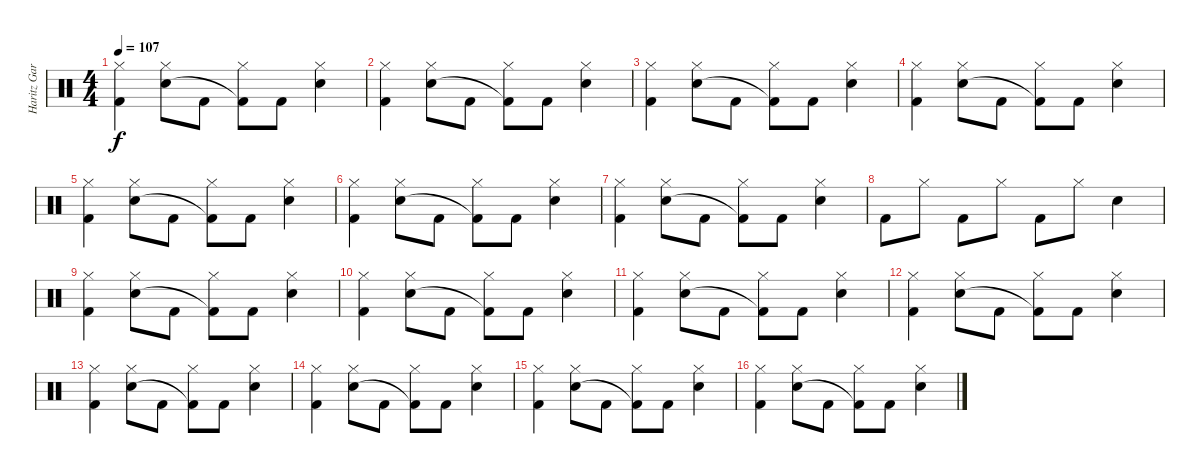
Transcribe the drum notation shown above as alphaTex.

\track ("Haritz Gardo" "Haritz Gar") {instrument percussion}
\staff {score}
\articulation defaults
\ts (4 4)
\tempo 107
\clef neutral
\ks c
("Hi-Hat (closed)" "Kick (hit) 2").4{dy f} ("Hi-Hat (closed)" "Electric Snare (hit)").8 "Kick (hit) 2".8 ("Hi-Hat (closed)" "Kick (hit) 2"{t}).8 "Kick (hit) 2".8 ("Hi-Hat (closed)" "Electric Snare (hit)").4 |
("Hi-Hat (closed)" "Kick (hit) 2").4 ("Hi-Hat (closed)" "Electric Snare (hit)").8 "Kick (hit) 2".8 ("Hi-Hat (closed)" "Kick (hit) 2"{t}).8 "Kick (hit) 2".8 ("Hi-Hat (closed)" "Electric Snare (hit)").4 |
("Hi-Hat (closed)" "Kick (hit) 2").4 ("Hi-Hat (closed)" "Electric Snare (hit)").8 "Kick (hit) 2".8 ("Hi-Hat (closed)" "Kick (hit) 2"{t}).8 "Kick (hit) 2".8 ("Hi-Hat (closed)" "Electric Snare (hit)").4 |
("Hi-Hat (closed)" "Kick (hit) 2").4 ("Hi-Hat (closed)" "Electric Snare (hit)").8 "Kick (hit) 2".8 ("Hi-Hat (closed)" "Kick (hit) 2"{t}).8 "Kick (hit) 2".8 ("Hi-Hat (closed)" "Electric Snare (hit)").4 |
("Hi-Hat (closed)" "Kick (hit) 2").4 ("Hi-Hat (closed)" "Electric Snare (hit)").8 "Kick (hit) 2".8 ("Hi-Hat (closed)" "Kick (hit) 2"{t}).8 "Kick (hit) 2".8 ("Hi-Hat (closed)" "Electric Snare (hit)").4 |
("Hi-Hat (closed)" "Kick (hit) 2").4 ("Hi-Hat (closed)" "Electric Snare (hit)").8 "Kick (hit) 2".8 ("Hi-Hat (closed)" "Kick (hit) 2"{t}).8 "Kick (hit) 2".8 ("Hi-Hat (closed)" "Electric Snare (hit)").4 |
("Hi-Hat (closed)" "Kick (hit) 2").4 ("Hi-Hat (closed)" "Electric Snare (hit)").8 "Kick (hit) 2".8 ("Hi-Hat (closed)" "Kick (hit) 2"{t}).8 "Kick (hit) 2".8 ("Hi-Hat (closed)" "Electric Snare (hit)").4 |
"Kick (hit) 2".8 "Hi-Hat (closed)".8 "Kick (hit) 2".8 "Hi-Hat (closed)".8 "Kick (hit) 2".8 "Hi-Hat (closed)".8 "Electric Snare (hit)".4 |
("Hi-Hat (closed)" "Kick (hit) 2").4 ("Hi-Hat (closed)" "Electric Snare (hit)").8 "Kick (hit) 2".8 ("Hi-Hat (closed)" "Kick (hit) 2"{t}).8 "Kick (hit) 2".8 ("Hi-Hat (closed)" "Electric Snare (hit)").4 |
("Hi-Hat (closed)" "Kick (hit) 2").4 ("Hi-Hat (closed)" "Electric Snare (hit)").8 "Kick (hit) 2".8 ("Hi-Hat (closed)" "Kick (hit) 2"{t}).8 "Kick (hit) 2".8 ("Hi-Hat (closed)" "Electric Snare (hit)").4 |
("Hi-Hat (closed)" "Kick (hit) 2").4 ("Hi-Hat (closed)" "Electric Snare (hit)").8 "Kick (hit) 2".8 ("Hi-Hat (closed)" "Kick (hit) 2"{t}).8 "Kick (hit) 2".8 ("Hi-Hat (closed)" "Electric Snare (hit)").4 |
("Hi-Hat (closed)" "Kick (hit) 2").4 ("Hi-Hat (closed)" "Electric Snare (hit)").8 "Kick (hit) 2".8 ("Hi-Hat (closed)" "Kick (hit) 2"{t}).8 "Kick (hit) 2".8 ("Hi-Hat (closed)" "Electric Snare (hit)").4 |
("Hi-Hat (closed)" "Kick (hit) 2").4 ("Hi-Hat (closed)" "Electric Snare (hit)").8 "Kick (hit) 2".8 ("Hi-Hat (closed)" "Kick (hit) 2"{t}).8 "Kick (hit) 2".8 ("Hi-Hat (closed)" "Electric Snare (hit)").4 |
("Hi-Hat (closed)" "Kick (hit) 2").4 ("Hi-Hat (closed)" "Electric Snare (hit)").8 "Kick (hit) 2".8 ("Hi-Hat (closed)" "Kick (hit) 2"{t}).8 "Kick (hit) 2".8 ("Hi-Hat (closed)" "Electric Snare (hit)").4 |
("Hi-Hat (closed)" "Kick (hit) 2").4 ("Hi-Hat (closed)" "Electric Snare (hit)").8 "Kick (hit) 2".8 ("Hi-Hat (closed)" "Kick (hit) 2"{t}).8 "Kick (hit) 2".8 ("Hi-Hat (closed)" "Electric Snare (hit)").4 |
("Hi-Hat (closed)" "Kick (hit) 2").4 ("Hi-Hat (closed)" "Electric Snare (hit)").8 "Kick (hit) 2".8 ("Hi-Hat (closed)" "Kick (hit) 2"{t}).8 "Kick (hit) 2".8 ("Hi-Hat (closed)" "Electric Snare (hit)").4
